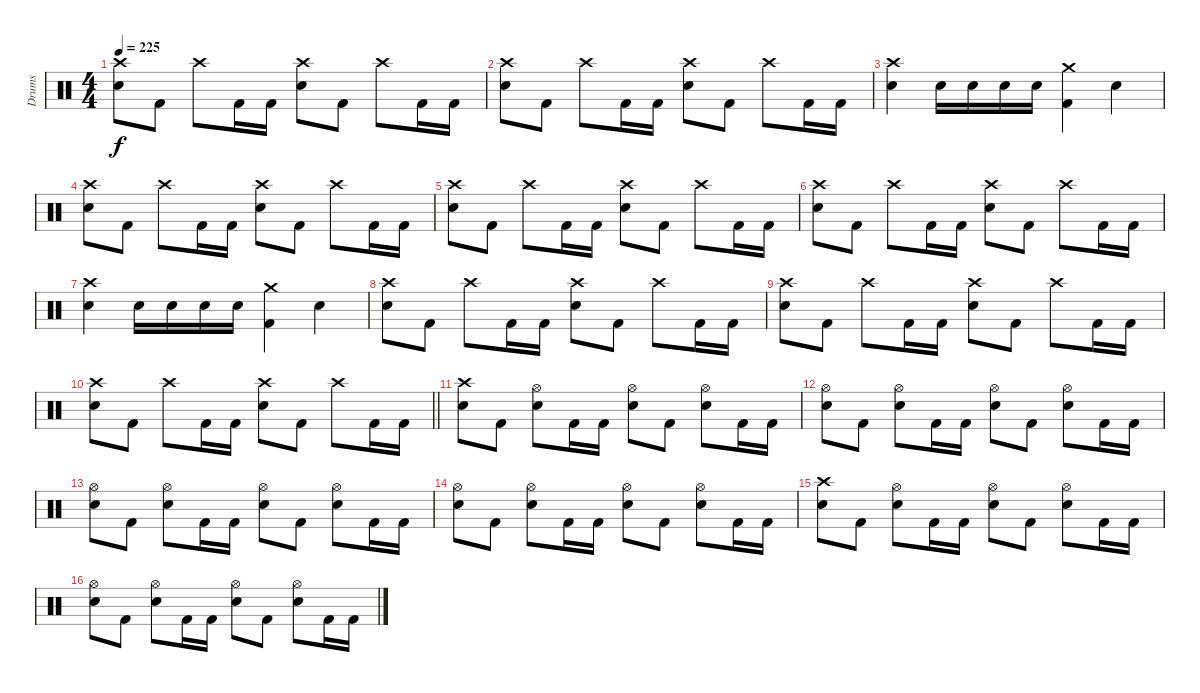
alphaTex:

\track ("Drums" "Drums") {instrument percussion}
\staff {score}
\articulation defaults
\ts (4 4)
\tempo 225
\clef neutral
\ks c
("Crash high (hit)" "Electric Snare (hit)").8{dy f} "Kick (hit) 2".8 "Crash high (hit)".8 "Kick (hit) 2".16 "Kick (hit) 2".16 ("Crash high (hit)" "Electric Snare (hit)").8 "Kick (hit) 2".8 "Crash high (hit)".8 "Kick (hit) 2".16 "Kick (hit) 2".16 |
("Crash high (hit)" "Electric Snare (hit)").8 "Kick (hit) 2".8 "Crash high (hit)".8 "Kick (hit) 2".16 "Kick (hit) 2".16 ("Crash high (hit)" "Electric Snare (hit)").8 "Kick (hit) 2".8 "Crash high (hit)".8 "Kick (hit) 2".16 "Kick (hit) 2".16 |
("Crash high (hit)" "Electric Snare (hit)").4 "Electric Snare (hit)".16 "Electric Snare (hit)".16 "Electric Snare (hit)".16 "Electric Snare (hit)".16 ("Crash medium (hit)" "Kick (hit) 2").4 "Electric Snare (hit)".4 |
("Crash high (hit)" "Electric Snare (hit)").8 "Kick (hit) 2".8 "Crash high (hit)".8 "Kick (hit) 2".16 "Kick (hit) 2".16 ("Crash high (hit)" "Electric Snare (hit)").8 "Kick (hit) 2".8 "Crash high (hit)".8 "Kick (hit) 2".16 "Kick (hit) 2".16 |
("Crash high (hit)" "Electric Snare (hit)").8 "Kick (hit) 2".8 "Crash high (hit)".8 "Kick (hit) 2".16 "Kick (hit) 2".16 ("Crash high (hit)" "Electric Snare (hit)").8 "Kick (hit) 2".8 "Crash high (hit)".8 "Kick (hit) 2".16 "Kick (hit) 2".16 |
("Crash high (hit)" "Electric Snare (hit)").8 "Kick (hit) 2".8 "Crash high (hit)".8 "Kick (hit) 2".16 "Kick (hit) 2".16 ("Crash high (hit)" "Electric Snare (hit)").8 "Kick (hit) 2".8 "Crash high (hit)".8 "Kick (hit) 2".16 "Kick (hit) 2".16 |
("Crash high (hit)" "Electric Snare (hit)").4 "Electric Snare (hit)".16 "Electric Snare (hit)".16 "Electric Snare (hit)".16 "Electric Snare (hit)".16 ("Crash medium (hit)" "Kick (hit) 2").4 "Electric Snare (hit)".4 |
("Crash high (hit)" "Electric Snare (hit)").8 "Kick (hit) 2".8 "Crash high (hit)".8 "Kick (hit) 2".16 "Kick (hit) 2".16 ("Crash high (hit)" "Electric Snare (hit)").8 "Kick (hit) 2".8 "Crash high (hit)".8 "Kick (hit) 2".16 "Kick (hit) 2".16 |
("Crash high (hit)" "Electric Snare (hit)").8 "Kick (hit) 2".8 "Crash high (hit)".8 "Kick (hit) 2".16 "Kick (hit) 2".16 ("Crash high (hit)" "Electric Snare (hit)").8 "Kick (hit) 2".8 "Crash high (hit)".8 "Kick (hit) 2".16 "Kick (hit) 2".16 |
\barLineRight lightlight
("Crash high (hit)" "Electric Snare (hit)").8 "Kick (hit) 2".8 "Crash high (hit)".8 "Kick (hit) 2".16 "Kick (hit) 2".16 ("Crash high (hit)" "Electric Snare (hit)").8 "Kick (hit) 2".8 "Crash high (hit)".8 "Kick (hit) 2".16 "Kick (hit) 2".16 |
\section ("" "")
("Crash high (hit)" "Electric Snare (hit)").8 "Kick (hit) 2".8 ("Hi-Hat (open)" "Electric Snare (hit)").8 "Kick (hit) 2".16 "Kick (hit) 2".16 ("Hi-Hat (open)" "Electric Snare (hit)").8 "Kick (hit) 2".8 ("Hi-Hat (open)" "Electric Snare (hit)").8 "Kick (hit) 2".16 "Kick (hit) 2".16 |
("Hi-Hat (open)" "Electric Snare (hit)").8 "Kick (hit) 2".8 ("Hi-Hat (open)" "Electric Snare (hit)").8 "Kick (hit) 2".16 "Kick (hit) 2".16 ("Hi-Hat (open)" "Electric Snare (hit)").8 "Kick (hit) 2".8 ("Hi-Hat (open)" "Electric Snare (hit)").8 "Kick (hit) 2".16 "Kick (hit) 2".16 |
("Hi-Hat (open)" "Electric Snare (hit)").8 "Kick (hit) 2".8 ("Hi-Hat (open)" "Electric Snare (hit)").8 "Kick (hit) 2".16 "Kick (hit) 2".16 ("Hi-Hat (open)" "Electric Snare (hit)").8 "Kick (hit) 2".8 ("Hi-Hat (open)" "Electric Snare (hit)").8 "Kick (hit) 2".16 "Kick (hit) 2".16 |
("Hi-Hat (open)" "Electric Snare (hit)").8 "Kick (hit) 2".8 ("Hi-Hat (open)" "Electric Snare (hit)").8 "Kick (hit) 2".16 "Kick (hit) 2".16 ("Hi-Hat (open)" "Electric Snare (hit)").8 "Kick (hit) 2".8 ("Hi-Hat (open)" "Electric Snare (hit)").8 "Kick (hit) 2".16 "Kick (hit) 2".16 |
("Crash high (hit)" "Electric Snare (hit)").8 "Kick (hit) 2".8 ("Hi-Hat (open)" "Electric Snare (hit)").8 "Kick (hit) 2".16 "Kick (hit) 2".16 ("Hi-Hat (open)" "Electric Snare (hit)").8 "Kick (hit) 2".8 ("Hi-Hat (open)" "Electric Snare (hit)").8 "Kick (hit) 2".16 "Kick (hit) 2".16 |
("Hi-Hat (open)" "Electric Snare (hit)").8 "Kick (hit) 2".8 ("Hi-Hat (open)" "Electric Snare (hit)").8 "Kick (hit) 2".16 "Kick (hit) 2".16 ("Hi-Hat (open)" "Electric Snare (hit)").8 "Kick (hit) 2".8 ("Hi-Hat (open)" "Electric Snare (hit)").8 "Kick (hit) 2".16 "Kick (hit) 2".16
